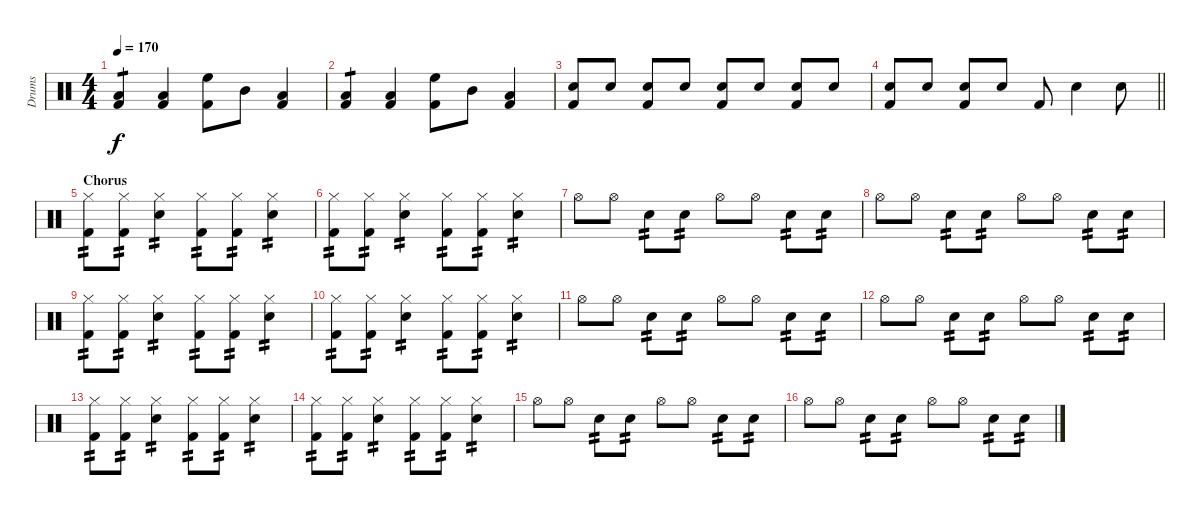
\track ("Drums" "Drums") {instrument percussion}
\staff {score}
\articulation defaults
\ts (4 4)
\tempo 170
\clef neutral
\ks c
("Kick (hit) 2" "Low Floor Tom (hit)").4{tp 1 dy f} ("Kick (hit) 2" "Low Floor Tom (hit)").4 ("Kick (hit) 2" "High Floor Tom (hit)").8 "Mid Tom (hit)".8 ("Kick (hit) 2" "Low Tom (hit)").4 |
("Kick (hit) 2" "Low Floor Tom (hit)").4{tp 1} ("Kick (hit) 2" "Low Floor Tom (hit)").4 ("Kick (hit) 2" "High Floor Tom (hit)").8 "Mid Tom (hit)".8 ("Kick (hit) 2" "Low Tom (hit)").4 |
("Kick (hit) 2" "Snare (hit) 2").8 "Snare (hit) 2".8 ("Kick (hit) 2" "Snare (hit) 2").8 "Snare (hit) 2".8 ("Kick (hit) 2" "Snare (hit) 2").8 "Snare (hit) 2".8 ("Kick (hit) 2" "Snare (hit) 2").8 "Snare (hit) 2".8 |
\barLineRight lightlight
("Kick (hit) 2" "Snare (hit) 2").8 "Snare (hit) 2".8 ("Kick (hit) 2" "Snare (hit) 2").8 "Snare (hit) 2".8 "Kick (hit) 2".8 "Snare (hit) 2".4 "Snare (hit) 2".8 |
\section ("" "Chorus")
("Kick (hit) 2" "Hi-Hat (closed)").8{tp 2} ("Kick (hit) 2" "Hi-Hat (closed)").8{tp 2} ("Snare (hit) 2" "Hi-Hat (closed)").4{tp 2} ("Kick (hit) 2" "Hi-Hat (closed)").8{tp 2} ("Kick (hit) 2" "Hi-Hat (closed)").8{tp 2} ("Snare (hit) 2" "Hi-Hat (closed)").4{tp 2} |
("Kick (hit) 2" "Hi-Hat (closed)").8{tp 2} ("Kick (hit) 2" "Hi-Hat (closed)").8{tp 2} ("Snare (hit) 2" "Hi-Hat (closed)").4{tp 2} ("Kick (hit) 2" "Hi-Hat (closed)").8{tp 2} ("Kick (hit) 2" "Hi-Hat (closed)").8{tp 2} ("Snare (hit) 2" "Hi-Hat (closed)").4{tp 2} |
"Hi-Hat (open)".8 "Hi-Hat (open)".8 "Snare (hit) 2".8{tp 2} "Snare (hit) 2".8{tp 2} "Hi-Hat (open)".8 "Hi-Hat (open)".8 "Snare (hit) 2".8{tp 2} "Snare (hit) 2".8{tp 2} |
"Hi-Hat (open)".8 "Hi-Hat (open)".8 "Snare (hit) 2".8{tp 2} "Snare (hit) 2".8{tp 2} "Hi-Hat (open)".8 "Hi-Hat (open)".8 "Snare (hit) 2".8{tp 2} "Snare (hit) 2".8{tp 2} |
("Kick (hit) 2" "Hi-Hat (closed)").8{tp 2} ("Kick (hit) 2" "Hi-Hat (closed)").8{tp 2} ("Snare (hit) 2" "Hi-Hat (closed)").4{tp 2} ("Kick (hit) 2" "Hi-Hat (closed)").8{tp 2} ("Kick (hit) 2" "Hi-Hat (closed)").8{tp 2} ("Snare (hit) 2" "Hi-Hat (closed)").4{tp 2} |
("Kick (hit) 2" "Hi-Hat (closed)").8{tp 2} ("Kick (hit) 2" "Hi-Hat (closed)").8{tp 2} ("Snare (hit) 2" "Hi-Hat (closed)").4{tp 2} ("Kick (hit) 2" "Hi-Hat (closed)").8{tp 2} ("Kick (hit) 2" "Hi-Hat (closed)").8{tp 2} ("Snare (hit) 2" "Hi-Hat (closed)").4{tp 2} |
"Hi-Hat (open)".8 "Hi-Hat (open)".8 "Snare (hit) 2".8{tp 2} "Snare (hit) 2".8{tp 2} "Hi-Hat (open)".8 "Hi-Hat (open)".8 "Snare (hit) 2".8{tp 2} "Snare (hit) 2".8{tp 2} |
"Hi-Hat (open)".8 "Hi-Hat (open)".8 "Snare (hit) 2".8{tp 2} "Snare (hit) 2".8{tp 2} "Hi-Hat (open)".8 "Hi-Hat (open)".8 "Snare (hit) 2".8{tp 2} "Snare (hit) 2".8{tp 2} |
("Kick (hit) 2" "Hi-Hat (closed)").8{tp 2} ("Kick (hit) 2" "Hi-Hat (closed)").8{tp 2} ("Snare (hit) 2" "Hi-Hat (closed)").4{tp 2} ("Kick (hit) 2" "Hi-Hat (closed)").8{tp 2} ("Kick (hit) 2" "Hi-Hat (closed)").8{tp 2} ("Snare (hit) 2" "Hi-Hat (closed)").4{tp 2} |
("Kick (hit) 2" "Hi-Hat (closed)").8{tp 2} ("Kick (hit) 2" "Hi-Hat (closed)").8{tp 2} ("Snare (hit) 2" "Hi-Hat (closed)").4{tp 2} ("Kick (hit) 2" "Hi-Hat (closed)").8{tp 2} ("Kick (hit) 2" "Hi-Hat (closed)").8{tp 2} ("Snare (hit) 2" "Hi-Hat (closed)").4{tp 2} |
"Hi-Hat (open)".8 "Hi-Hat (open)".8 "Snare (hit) 2".8{tp 2} "Snare (hit) 2".8{tp 2} "Hi-Hat (open)".8 "Hi-Hat (open)".8 "Snare (hit) 2".8{tp 2} "Snare (hit) 2".8{tp 2} |
"Hi-Hat (open)".8 "Hi-Hat (open)".8 "Snare (hit) 2".8{tp 2} "Snare (hit) 2".8{tp 2} "Hi-Hat (open)".8 "Hi-Hat (open)".8 "Snare (hit) 2".8{tp 2} "Snare (hit) 2".8{tp 2}
